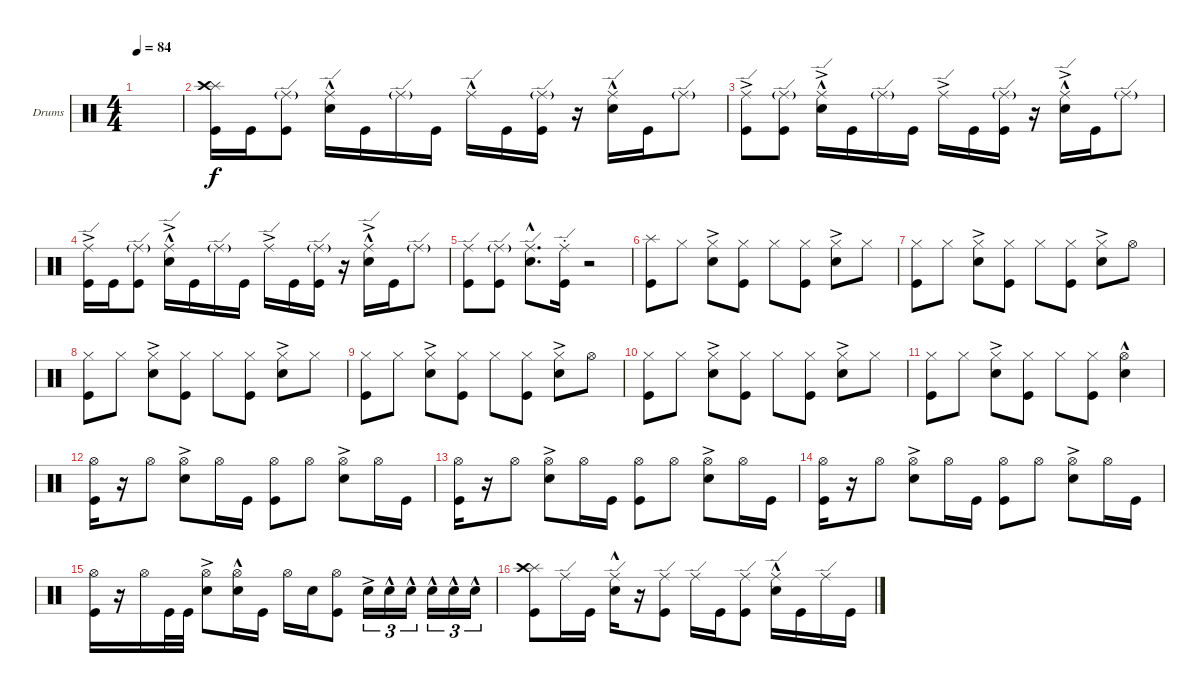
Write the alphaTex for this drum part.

\defaultSystemsLayout 4
\bracketExtendMode groupsimilarinstruments
\firstSystemTrackNameOrientation horizontal
\otherSystemsTrackNameOrientation horizontal
\track ("Drumkit" "Drums") {instrument percussion}
\staff {score}
\articulation defaults
\ts (4 4)
\tempo 84
\clef neutral
\ks c
|
("Kick (hit)" "Splash (hit)" "Crash high (hit)").16 "Kick (hit)".16 ("Kick (hit)" "Ride (edge)"{g}).8 ("Snare (hit) 2"{hac} "Ride (edge)"{hac}).16 "Kick (hit)".16 "Ride (edge)"{g}.16 "Kick (hit)".16 "Ride (edge)"{hac}.16 "Kick (hit)".16 ("Ride (edge)"{g} "Kick (hit)").16 r.16 ("Snare (hit) 2"{hac} "Ride (edge)"{hac}).16 "Kick (hit)".16 "Ride (edge)"{g}.8 |
("Kick (hit)" "Ride (edge)"{ac}).8 ("Kick (hit)" "Ride (edge)"{g}).8 ("Snare (hit) 2"{hac} "Ride (edge)"{ac}).16 "Kick (hit)".16 "Ride (edge)"{g}.16 "Kick (hit)".16 "Ride (edge)"{ac}.16 "Kick (hit)".16 ("Ride (edge)"{g} "Kick (hit)").16 r.16 ("Snare (hit) 2"{hac} "Ride (edge)"{ac}).16 "Kick (hit)".16 "Ride (edge)"{g}.8 |
("Kick (hit)" "Ride (edge)"{ac}).16 "Kick (hit)".16 ("Kick (hit)" "Ride (edge)"{g}).8 ("Snare (hit) 2"{hac} "Ride (edge)"{ac}).16 "Kick (hit)".16 "Ride (edge)"{g}.16 "Kick (hit)".16 "Ride (edge)"{ac}.16 "Kick (hit)".16 ("Ride (edge)"{g} "Kick (hit)").16 r.16 ("Snare (hit) 2"{hac} "Ride (edge)"{ac}).16 "Kick (hit)".16 "Ride (edge)"{g}.8 |
("Kick (hit)" "Ride (edge)").8 ("Kick (hit)" "Ride (edge)"{g}).8 ("Ride (edge)" "Snare (hit) 2"{hac}).8{d} ("Ride (edge)"{st} "Kick (hit)"{st}).16 r.2 |
("Kick (hit)" "Splash (hit)").8 "Hi-Hat (closed)".8 ("Snare (hit) 2"{ac} "Hi-Hat (closed)").8 ("Hi-Hat (closed)" "Kick (hit)").8 "Hi-Hat (closed)".8 ("Hi-Hat (closed)" "Kick (hit)").8 ("Snare (hit) 2"{ac} "Hi-Hat (closed)").8 "Hi-Hat (closed)".8 |
("Kick (hit)" "Hi-Hat (closed)").8 "Hi-Hat (closed)".8 ("Snare (hit) 2"{ac} "Hi-Hat (closed)").8 ("Hi-Hat (closed)" "Kick (hit)").8 "Hi-Hat (closed)".8 ("Hi-Hat (closed)" "Kick (hit)").8 ("Snare (hit) 2"{ac} "Hi-Hat (closed)").8 "Hi-Hat (open)".8 |
("Kick (hit)" "Hi-Hat (closed)").8 "Hi-Hat (closed)".8 ("Snare (hit) 2"{ac} "Hi-Hat (closed)").8 ("Hi-Hat (closed)" "Kick (hit)").8 "Hi-Hat (closed)".8 ("Hi-Hat (closed)" "Kick (hit)").8 ("Snare (hit) 2"{ac} "Hi-Hat (closed)").8 "Hi-Hat (closed)".8 |
("Kick (hit)" "Hi-Hat (closed)").8 "Hi-Hat (closed)".8 ("Snare (hit) 2"{ac} "Hi-Hat (closed)").8 ("Hi-Hat (closed)" "Kick (hit)").8 "Hi-Hat (closed)".8 ("Hi-Hat (closed)" "Kick (hit)").8 ("Snare (hit) 2"{ac} "Hi-Hat (closed)").8 "Hi-Hat (open)".8 |
("Kick (hit)" "Hi-Hat (closed)").8 "Hi-Hat (closed)".8 ("Snare (hit) 2"{ac} "Hi-Hat (closed)").8 ("Hi-Hat (closed)" "Kick (hit)").8 "Hi-Hat (closed)".8 ("Hi-Hat (closed)" "Kick (hit)").8 ("Snare (hit) 2"{ac} "Hi-Hat (closed)").8 "Hi-Hat (closed)".8 |
("Kick (hit)" "Hi-Hat (closed)").8 "Hi-Hat (closed)".8 ("Snare (hit) 2"{ac} "Hi-Hat (closed)").8 ("Hi-Hat (closed)" "Kick (hit)").8 "Hi-Hat (closed)".8 ("Hi-Hat (closed)" "Kick (hit)").8 ("Snare (hit) 2"{hac} "Hi-Hat (open)").4 |
("Hi-Hat (open)" "Kick (hit)").16 r.16 "Hi-Hat (open)".8 ("Snare (hit) 2"{ac} "Hi-Hat (open)").8 "Hi-Hat (open)".16 "Kick (hit)".16 ("Hi-Hat (open)" "Kick (hit)").8 "Hi-Hat (open)".8 ("Snare (hit) 2"{ac} "Hi-Hat (open)").8 "Hi-Hat (open)".16 "Kick (hit)".16 |
("Kick (hit)" "Hi-Hat (open)").16 r.16 "Hi-Hat (open)".8 ("Snare (hit) 2"{ac} "Hi-Hat (open)").8 "Hi-Hat (open)".16 "Kick (hit)".16 ("Hi-Hat (open)" "Kick (hit)").8 "Hi-Hat (open)".8 ("Snare (hit) 2"{ac} "Hi-Hat (open)").8 "Hi-Hat (open)".16 "Kick (hit)".16 |
("Kick (hit)" "Hi-Hat (open)").16 r.16 "Hi-Hat (open)".8 ("Snare (hit) 2"{ac} "Hi-Hat (open)").8 "Hi-Hat (open)".16 "Kick (hit)".16 ("Hi-Hat (open)" "Kick (hit)").8 "Hi-Hat (open)".8 ("Snare (hit) 2"{ac} "Hi-Hat (open)").8 "Hi-Hat (open)".16 "Kick (hit)".16 |
("Kick (hit)" "Hi-Hat (open)").16 r.16 "Hi-Hat (open)".16 "Kick (hit)".32 "Kick (hit)".32 ("Snare (hit) 2"{ac} "Hi-Hat (open)").8 ("Snare (hit) 2"{hac} "Hi-Hat (open)").16 "Kick (hit)".16 "Hi-Hat (open)".16 "Snare (hit) 2".16 ("Hi-Hat (open)" "Kick (hit)").8 "Snare (hit) 2"{ac}.16{tu (3 2)} "Snare (hit) 2"{hac}.16{tu (3 2)} "Snare (hit) 2"{hac}.16{tu (3 2)} "Snare (hit) 2"{hac}.16{tu (3 2)} "Snare (hit) 2"{hac}.16{tu (3 2)} "Snare (hit) 2"{hac}.16{tu (3 2)} |
("Kick (hit)" "Splash (hit)" "Crash high (hit)").8 "Ride (edge)".16 "Kick (hit)".16 ("Ride (edge)" "Snare (hit) 2"{hac}).16 r.16 ("Ride (edge)" "Kick (hit)").8 "Ride (edge)".16 "Kick (hit)".16 ("Ride (edge)" "Kick (hit)").8 ("Snare (hit) 2"{hac} "Ride (edge)").16 "Kick (hit)".16 "Ride (edge)".16 "Kick (hit)".16
